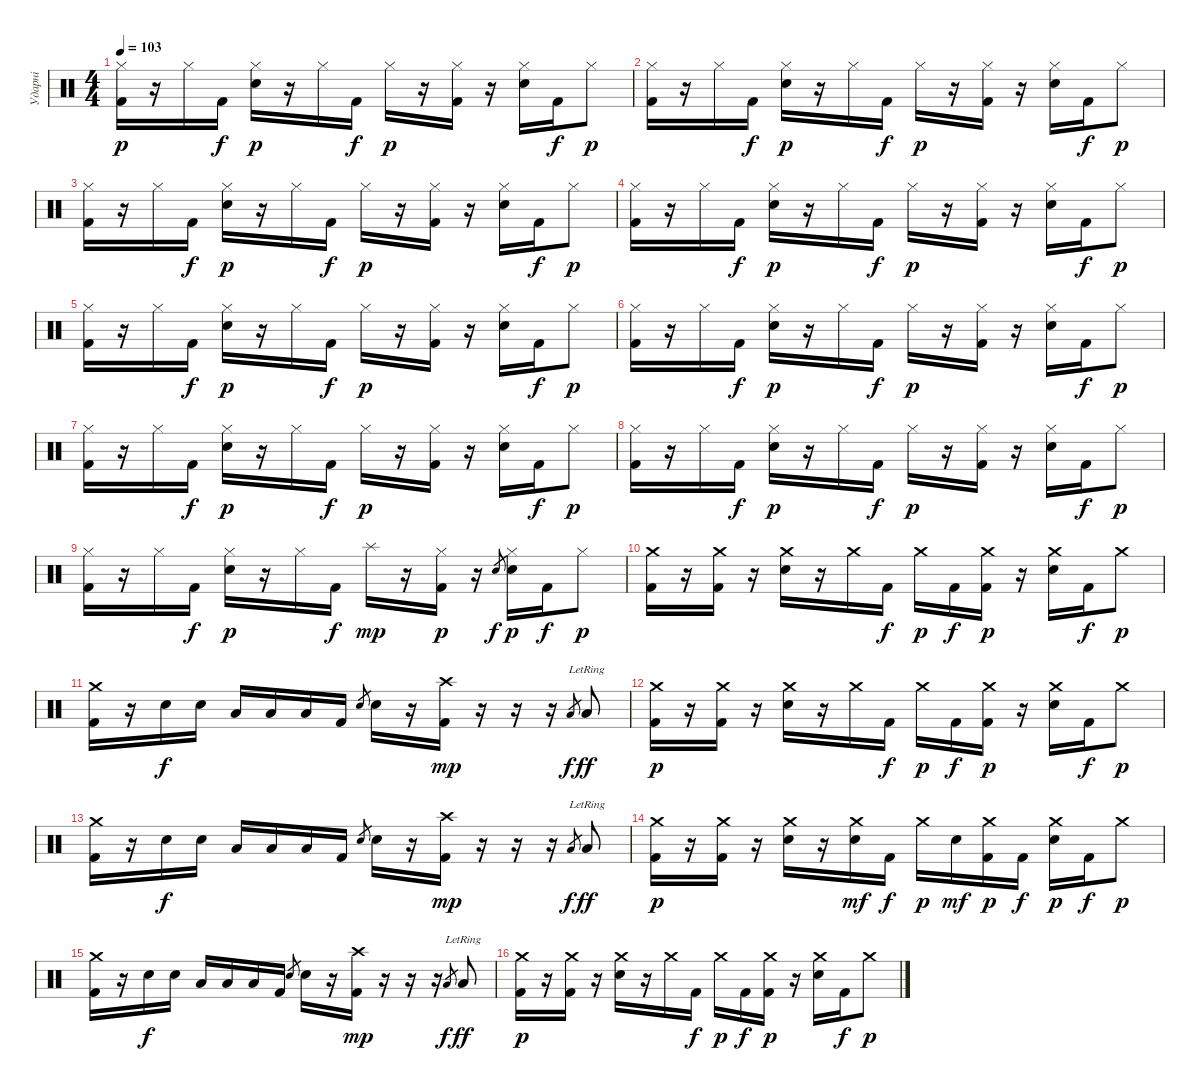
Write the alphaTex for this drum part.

\track ("Ударні" "Ударні") {instrument percussion}
\staff {score}
\articulation defaults
\ts (4 4)
\tempo 103
\clef neutral
\ks c
("Hi-Hat (closed)" "Kick (hit) 2").16{dy p} r.16 "Hi-Hat (closed)".16 "Kick (hit) 2".16{dy f} ("Hi-Hat (closed)" "Electric Snare (hit)").16{dy p} r.16 "Hi-Hat (closed)".16 "Kick (hit) 2".16{dy f} "Hi-Hat (closed)".16{dy p} r.16 ("Hi-Hat (closed)" "Kick (hit) 2").16 r.16 ("Hi-Hat (closed)" "Electric Snare (hit)").16 "Kick (hit) 2".16{dy f} "Hi-Hat (closed)".8{dy p} |
("Hi-Hat (closed)" "Kick (hit) 2").16 r.16 "Hi-Hat (closed)".16 "Kick (hit) 2".16{dy f} ("Hi-Hat (closed)" "Electric Snare (hit)").16{dy p} r.16 "Hi-Hat (closed)".16 "Kick (hit) 2".16{dy f} "Hi-Hat (closed)".16{dy p} r.16 ("Hi-Hat (closed)" "Kick (hit) 2").16 r.16 ("Hi-Hat (closed)" "Electric Snare (hit)").16 "Kick (hit) 2".16{dy f} "Hi-Hat (closed)".8{dy p} |
("Hi-Hat (closed)" "Kick (hit) 2").16 r.16 "Hi-Hat (closed)".16 "Kick (hit) 2".16{dy f} ("Hi-Hat (closed)" "Electric Snare (hit)").16{dy p} r.16 "Hi-Hat (closed)".16 "Kick (hit) 2".16{dy f} "Hi-Hat (closed)".16{dy p} r.16 ("Hi-Hat (closed)" "Kick (hit) 2").16 r.16 ("Hi-Hat (closed)" "Electric Snare (hit)").16 "Kick (hit) 2".16{dy f} "Hi-Hat (closed)".8{dy p} |
("Hi-Hat (closed)" "Kick (hit) 2").16 r.16 "Hi-Hat (closed)".16 "Kick (hit) 2".16{dy f} ("Hi-Hat (closed)" "Electric Snare (hit)").16{dy p} r.16 "Hi-Hat (closed)".16 "Kick (hit) 2".16{dy f} "Hi-Hat (closed)".16{dy p} r.16 ("Hi-Hat (closed)" "Kick (hit) 2").16 r.16 ("Hi-Hat (closed)" "Electric Snare (hit)").16 "Kick (hit) 2".16{dy f} "Hi-Hat (closed)".8{dy p} |
("Hi-Hat (closed)" "Kick (hit) 2").16 r.16 "Hi-Hat (closed)".16 "Kick (hit) 2".16{dy f} ("Hi-Hat (closed)" "Electric Snare (hit)").16{dy p} r.16 "Hi-Hat (closed)".16 "Kick (hit) 2".16{dy f} "Hi-Hat (closed)".16{dy p} r.16 ("Hi-Hat (closed)" "Kick (hit) 2").16 r.16 ("Hi-Hat (closed)" "Electric Snare (hit)").16 "Kick (hit) 2".16{dy f} "Hi-Hat (closed)".8{dy p} |
("Hi-Hat (closed)" "Kick (hit) 2").16 r.16 "Hi-Hat (closed)".16 "Kick (hit) 2".16{dy f} ("Hi-Hat (closed)" "Electric Snare (hit)").16{dy p} r.16 "Hi-Hat (closed)".16 "Kick (hit) 2".16{dy f} "Hi-Hat (closed)".16{dy p} r.16 ("Hi-Hat (closed)" "Kick (hit) 2").16 r.16 ("Hi-Hat (closed)" "Electric Snare (hit)").16 "Kick (hit) 2".16{dy f} "Hi-Hat (closed)".8{dy p} |
("Hi-Hat (closed)" "Kick (hit) 2").16 r.16 "Hi-Hat (closed)".16 "Kick (hit) 2".16{dy f} ("Hi-Hat (closed)" "Electric Snare (hit)").16{dy p} r.16 "Hi-Hat (closed)".16 "Kick (hit) 2".16{dy f} "Hi-Hat (closed)".16{dy p} r.16 ("Hi-Hat (closed)" "Kick (hit) 2").16 r.16 ("Hi-Hat (closed)" "Electric Snare (hit)").16 "Kick (hit) 2".16{dy f} "Hi-Hat (closed)".8{dy p} |
("Hi-Hat (closed)" "Kick (hit) 2").16 r.16 "Hi-Hat (closed)".16 "Kick (hit) 2".16{dy f} ("Hi-Hat (closed)" "Electric Snare (hit)").16{dy p} r.16 "Hi-Hat (closed)".16 "Kick (hit) 2".16{dy f} "Hi-Hat (closed)".16{dy p} r.16 ("Hi-Hat (closed)" "Kick (hit) 2").16 r.16 ("Hi-Hat (closed)" "Electric Snare (hit)").16 "Kick (hit) 2".16{dy f} "Hi-Hat (closed)".8{dy p} |
("Hi-Hat (closed)" "Kick (hit) 2").16 r.16 "Hi-Hat (closed)".16 "Kick (hit) 2".16{dy f} ("Hi-Hat (closed)" "Electric Snare (hit)").16{dy p} r.16 "Hi-Hat (closed)".16 "Kick (hit) 2".16{dy f} "Splash (hit)".16{dy mp} r.16 ("Hi-Hat (closed)" "Kick (hit) 2").16{dy p} r.16 "Electric Snare (hit)".8{gr dy f} ("Hi-Hat (closed)" "Electric Snare (hit)").16{dy p} "Kick (hit) 2".16{dy f} "Hi-Hat (closed)".8{dy p} |
("Crash medium (hit)" "Kick (hit) 2").16 r.16 ("Crash medium (hit)" "Kick (hit) 2").16 r.16 ("Crash medium (hit)" "Electric Snare (hit)").16 r.16 "Crash medium (hit)".16 "Kick (hit) 2".16{dy f} "Crash medium (hit)".16{dy p} "Kick (hit) 2".16{dy f} ("Crash medium (hit)" "Kick (hit) 2").16{dy p} r.16 ("Crash medium (hit)" "Electric Snare (hit)").16 "Kick (hit) 2".16{dy f} "Crash medium (hit)".8{dy p} |
("Crash medium (hit)" "Kick (hit) 2").16 r.16 "Electric Snare (hit)".16{dy f} "Electric Snare (hit)".16 "Low Tom (hit)".16 "Low Tom (hit)".16 "Low Floor Tom (hit)".16 "Kick (hit) 2".16 "Electric Snare (hit)".8{gr} "Electric Snare (hit)".16 r.16 ("Crash high (hit)" "Kick (hit) 2").16{dy mp} r.16 r.16 r.16 "Low Tom (hit)".8{gr dy f} "Low Floor Tom (hit)"{lr}.8{dy ff} |
("Crash medium (hit)" "Kick (hit) 2").16{dy p} r.16 ("Crash medium (hit)" "Kick (hit) 2").16 r.16 ("Crash medium (hit)" "Electric Snare (hit)").16 r.16 "Crash medium (hit)".16 "Kick (hit) 2".16{dy f} "Crash medium (hit)".16{dy p} "Kick (hit) 2".16{dy f} ("Crash medium (hit)" "Kick (hit) 2").16{dy p} r.16 ("Crash medium (hit)" "Electric Snare (hit)").16 "Kick (hit) 2".16{dy f} "Crash medium (hit)".8{dy p} |
("Crash medium (hit)" "Kick (hit) 2").16 r.16 "Electric Snare (hit)".16{dy f} "Electric Snare (hit)".16 "Low Tom (hit)".16 "Low Tom (hit)".16 "Low Floor Tom (hit)".16 "Kick (hit) 2".16 "Electric Snare (hit)".8{gr} "Electric Snare (hit)".16 r.16 ("Crash high (hit)" "Kick (hit) 2").16{dy mp} r.16 r.16 r.16 "Low Tom (hit)".8{gr dy f} "Low Floor Tom (hit)"{lr}.8{dy ff} |
("Crash medium (hit)" "Kick (hit) 2").16{dy p} r.16 ("Crash medium (hit)" "Kick (hit) 2").16 r.16 ("Crash medium (hit)" "Electric Snare (hit)").16 r.16 ("Crash medium (hit)" "Electric Snare (hit)").16{dy mf} "Kick (hit) 2".16{dy f} "Crash medium (hit)".16{dy p} "Electric Snare (hit)".16{dy mf} ("Crash medium (hit)" "Kick (hit) 2").16{dy p} "Kick (hit) 2".16{dy f} ("Crash medium (hit)" "Electric Snare (hit)").16{dy p} "Kick (hit) 2".16{dy f} "Crash medium (hit)".8{dy p} |
("Crash medium (hit)" "Kick (hit) 2").16 r.16 "Electric Snare (hit)".16{dy f} "Electric Snare (hit)".16 "Low Tom (hit)".16 "Low Tom (hit)".16 "Low Floor Tom (hit)".16 "Kick (hit) 2".16 "Electric Snare (hit)".8{gr} "Electric Snare (hit)".16 r.16 ("Crash high (hit)" "Kick (hit) 2").16{dy mp} r.16 r.16 r.16 "Low Tom (hit)".8{gr dy f} "Low Floor Tom (hit)"{lr}.8{dy ff} |
("Crash medium (hit)" "Kick (hit) 2").16{dy p} r.16 ("Crash medium (hit)" "Kick (hit) 2").16 r.16 ("Crash medium (hit)" "Electric Snare (hit)").16 r.16 "Crash medium (hit)".16 "Kick (hit) 2".16{dy f} "Crash medium (hit)".16{dy p} "Kick (hit) 2".16{dy f} ("Crash medium (hit)" "Kick (hit) 2").16{dy p} r.16 ("Crash medium (hit)" "Electric Snare (hit)").16 "Kick (hit) 2".16{dy f} "Crash medium (hit)".8{dy p}
